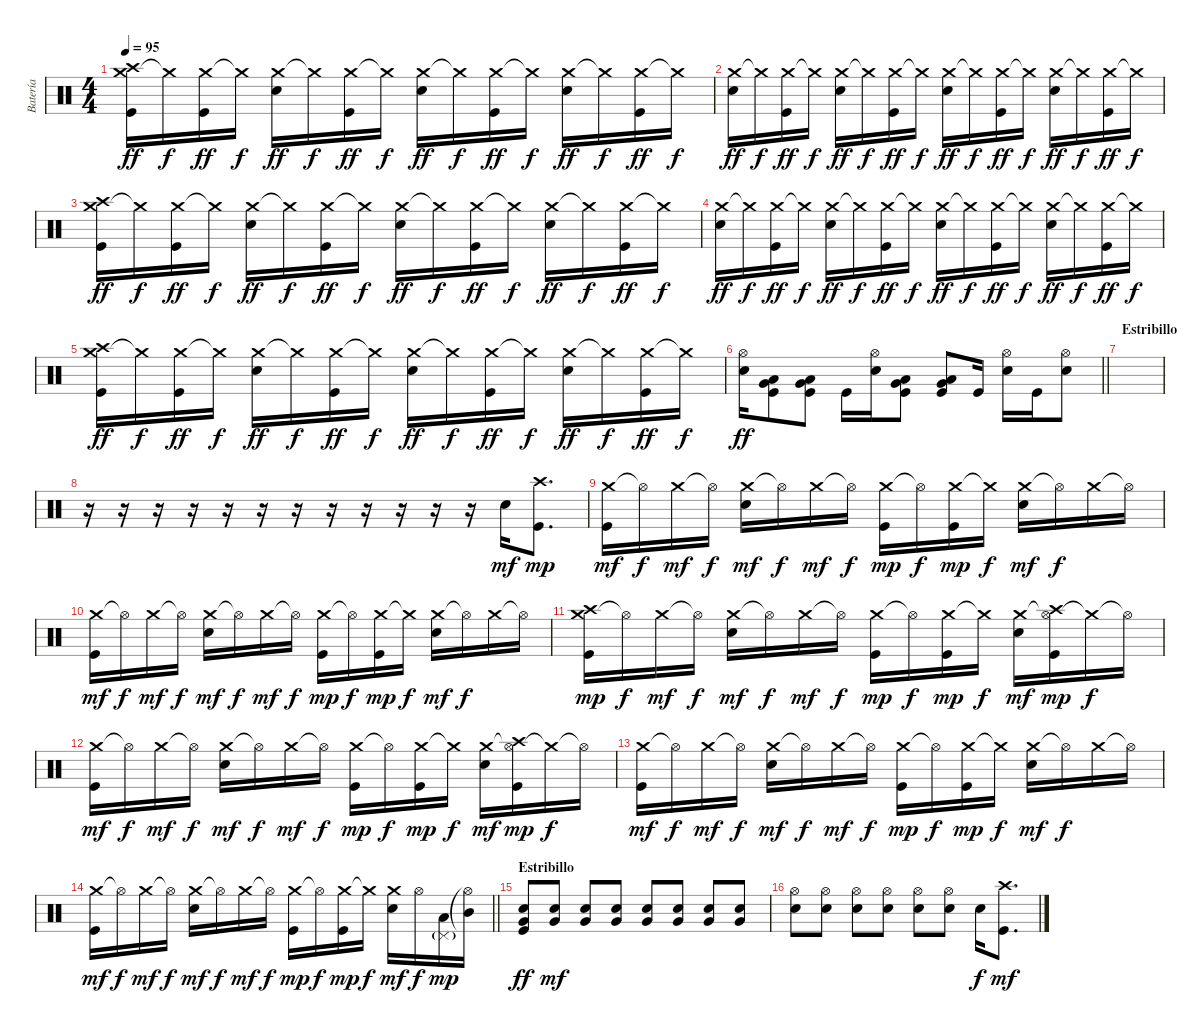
\track ("Batería" "Batería") {instrument percussion}
\staff {score}
\articulation defaults
\ts (4 4)
\tempo 95
\clef neutral
\ks c
("Crash medium (hit)" "Kick (hit)" "Crash high (hit)").16{dy ff} "Crash medium (hit)"{t}.16{dy f} ("Crash medium (hit)" "Kick (hit)").16{dy ff} "Crash medium (hit)"{t}.16{dy f} ("Crash medium (hit)" "Electric Snare (hit)").16{dy ff} "Crash medium (hit)"{t}.16{dy f} ("Crash medium (hit)" "Kick (hit)").16{dy ff} "Crash medium (hit)"{t}.16{dy f} ("Crash medium (hit)" "Electric Snare (hit)").16{dy ff} "Crash medium (hit)"{t}.16{dy f} ("Crash medium (hit)" "Kick (hit)").16{dy ff} "Crash medium (hit)"{t}.16{dy f} ("Crash medium (hit)" "Electric Snare (hit)").16{dy ff} "Crash medium (hit)"{t}.16{dy f} ("Crash medium (hit)" "Kick (hit)").16{dy ff} "Crash medium (hit)"{t}.16{dy f} |
("Crash medium (hit)" "Electric Snare (hit)").16{dy ff} "Crash medium (hit)"{t}.16{dy f} ("Crash medium (hit)" "Kick (hit)").16{dy ff} "Crash medium (hit)"{t}.16{dy f} ("Crash medium (hit)" "Electric Snare (hit)").16{dy ff} "Crash medium (hit)"{t}.16{dy f} ("Crash medium (hit)" "Kick (hit)").16{dy ff} "Crash medium (hit)"{t}.16{dy f} ("Crash medium (hit)" "Electric Snare (hit)").16{dy ff} "Crash medium (hit)"{t}.16{dy f} ("Crash medium (hit)" "Kick (hit)").16{dy ff} "Crash medium (hit)"{t}.16{dy f} ("Crash medium (hit)" "Electric Snare (hit)").16{dy ff} "Crash medium (hit)"{t}.16{dy f} ("Crash medium (hit)" "Kick (hit)").16{dy ff} "Crash medium (hit)"{t}.16{dy f} |
("Crash medium (hit)" "Kick (hit)" "Crash high (hit)").16{dy ff} "Crash medium (hit)"{t}.16{dy f} ("Crash medium (hit)" "Kick (hit)").16{dy ff} "Crash medium (hit)"{t}.16{dy f} ("Crash medium (hit)" "Electric Snare (hit)").16{dy ff} "Crash medium (hit)"{t}.16{dy f} ("Crash medium (hit)" "Kick (hit)").16{dy ff} "Crash medium (hit)"{t}.16{dy f} ("Crash medium (hit)" "Electric Snare (hit)").16{dy ff} "Crash medium (hit)"{t}.16{dy f} ("Crash medium (hit)" "Kick (hit)").16{dy ff} "Crash medium (hit)"{t}.16{dy f} ("Crash medium (hit)" "Electric Snare (hit)").16{dy ff} "Crash medium (hit)"{t}.16{dy f} ("Crash medium (hit)" "Kick (hit)").16{dy ff} "Crash medium (hit)"{t}.16{dy f} |
("Crash medium (hit)" "Electric Snare (hit)").16{dy ff} "Crash medium (hit)"{t}.16{dy f} ("Crash medium (hit)" "Kick (hit)").16{dy ff} "Crash medium (hit)"{t}.16{dy f} ("Crash medium (hit)" "Electric Snare (hit)").16{dy ff} "Crash medium (hit)"{t}.16{dy f} ("Crash medium (hit)" "Kick (hit)").16{dy ff} "Crash medium (hit)"{t}.16{dy f} ("Crash medium (hit)" "Electric Snare (hit)").16{dy ff} "Crash medium (hit)"{t}.16{dy f} ("Crash medium (hit)" "Kick (hit)").16{dy ff} "Crash medium (hit)"{t}.16{dy f} ("Crash medium (hit)" "Electric Snare (hit)").16{dy ff} "Crash medium (hit)"{t}.16{dy f} ("Crash medium (hit)" "Kick (hit)").16{dy ff} "Crash medium (hit)"{t}.16{dy f} |
("Crash medium (hit)" "Kick (hit)" "Crash high (hit)").16{dy ff} "Crash medium (hit)"{t}.16{dy f} ("Crash medium (hit)" "Kick (hit)").16{dy ff} "Crash medium (hit)"{t}.16{dy f} ("Crash medium (hit)" "Electric Snare (hit)").16{dy ff} "Crash medium (hit)"{t}.16{dy f} ("Crash medium (hit)" "Kick (hit)").16{dy ff} "Crash medium (hit)"{t}.16{dy f} ("Crash medium (hit)" "Electric Snare (hit)").16{dy ff} "Crash medium (hit)"{t}.16{dy f} ("Crash medium (hit)" "Kick (hit)").16{dy ff} "Crash medium (hit)"{t}.16{dy f} ("Crash medium (hit)" "Electric Snare (hit)").16{dy ff} "Crash medium (hit)"{t}.16{dy f} ("Crash medium (hit)" "Kick (hit)").16{dy ff} "Crash medium (hit)"{t}.16{dy f} |
\barLineRight lightlight
("Hi-Hat (open)" "Electric Snare (hit)").16{dy ff} ("Very Low Tom (hit)" "Low Tom (hit)" "Kick (hit)").8 ("Very Low Tom (hit)" "Low Tom (hit)" "Kick (hit)").8 "Kick (hit)".16 ("Hi-Hat (open)" "Electric Snare (hit)").16 ("Very Low Tom (hit)" "Low Tom (hit)" "Kick (hit)").8 ("Very Low Tom (hit)" "Low Tom (hit)" "Kick (hit)").8 "Kick (hit)".16 ("Hi-Hat (open)" "Electric Snare (hit)").16 "Kick (hit)".16 ("Hi-Hat (open)" "Electric Snare (hit)").8 |
\section ("" "Estribillo")
|
r.16 r.16 r.16 r.16 r.16 r.16 r.16 r.16 r.16 r.16 r.16 r.16 "Electric Snare (hit)".16{dy mf} ("Kick (hit)" "Crash high (hit)").8{d dy mp} |
("Crash medium (hit)" "Kick (hit)").16{dy mf} "Hi-Hat (open)"{t}.16{dy f} "Crash medium (hit)".16{dy mf} "Hi-Hat (open)"{t}.16{dy f} ("Crash medium (hit)" "Electric Snare (hit)").16{dy mf} "Hi-Hat (open)"{t}.16{dy f} "Crash medium (hit)".16{dy mf} "Hi-Hat (open)"{t}.16{dy f} ("Crash medium (hit)" "Kick (hit)").16{dy mp} "Hi-Hat (open)"{t}.16{dy f} ("Crash medium (hit)" "Kick (hit)").16{dy mp} "Crash medium (hit)"{t}.16{dy f} ("Crash medium (hit)" "Electric Snare (hit)").16{dy mf} "Hi-Hat (open)"{t}.16{dy f} "Crash medium (hit)".16 "Hi-Hat (open)"{t}.16 |
("Crash medium (hit)" "Kick (hit)").16{dy mf} "Hi-Hat (open)"{t}.16{dy f} "Crash medium (hit)".16{dy mf} "Hi-Hat (open)"{t}.16{dy f} ("Crash medium (hit)" "Electric Snare (hit)").16{dy mf} "Hi-Hat (open)"{t}.16{dy f} "Crash medium (hit)".16{dy mf} "Hi-Hat (open)"{t}.16{dy f} ("Crash medium (hit)" "Kick (hit)").16{dy mp} "Hi-Hat (open)"{t}.16{dy f} ("Crash medium (hit)" "Kick (hit)").16{dy mp} "Crash medium (hit)"{t}.16{dy f} ("Crash medium (hit)" "Electric Snare (hit)").16{dy mf} "Hi-Hat (open)"{t}.16{dy f} "Crash medium (hit)".16 "Hi-Hat (open)"{t}.16 |
("Crash medium (hit)" "Kick (hit)" "Crash high (hit)").16{dy mp} "Hi-Hat (open)"{t}.16{dy f} "Crash medium (hit)".16{dy mf} "Hi-Hat (open)"{t}.16{dy f} ("Crash medium (hit)" "Electric Snare (hit)").16{dy mf} "Hi-Hat (open)"{t}.16{dy f} "Crash medium (hit)".16{dy mf} "Hi-Hat (open)"{t}.16{dy f} ("Crash medium (hit)" "Kick (hit)").16{dy mp} "Hi-Hat (open)"{t}.16{dy f} ("Crash medium (hit)" "Kick (hit)").16{dy mp} "Crash medium (hit)"{t}.16{dy f} ("Crash medium (hit)" "Electric Snare (hit)").16{dy mf} ("Hi-Hat (open)"{t} "Kick (hit)" "Crash high (hit)").16{dy mp} "Crash medium (hit)"{t}.16{dy f} "Hi-Hat (open)"{t}.16 |
("Crash medium (hit)" "Kick (hit)").16{dy mf} "Hi-Hat (open)"{t}.16{dy f} "Crash medium (hit)".16{dy mf} "Hi-Hat (open)"{t}.16{dy f} ("Crash medium (hit)" "Electric Snare (hit)").16{dy mf} "Hi-Hat (open)"{t}.16{dy f} "Crash medium (hit)".16{dy mf} "Hi-Hat (open)"{t}.16{dy f} ("Crash medium (hit)" "Kick (hit)").16{dy mp} "Hi-Hat (open)"{t}.16{dy f} ("Crash medium (hit)" "Kick (hit)").16{dy mp} "Crash medium (hit)"{t}.16{dy f} ("Crash medium (hit)" "Electric Snare (hit)").16{dy mf} ("Hi-Hat (open)"{t} "Kick (hit)" "Crash high (hit)").16{dy mp} "Crash medium (hit)"{t}.16{dy f} "Hi-Hat (open)"{t}.16 |
("Crash medium (hit)" "Kick (hit)").16{dy mf} "Hi-Hat (open)"{t}.16{dy f} "Crash medium (hit)".16{dy mf} "Hi-Hat (open)"{t}.16{dy f} ("Crash medium (hit)" "Electric Snare (hit)").16{dy mf} "Hi-Hat (open)"{t}.16{dy f} "Crash medium (hit)".16{dy mf} "Hi-Hat (open)"{t}.16{dy f} ("Crash medium (hit)" "Kick (hit)").16{dy mp} "Hi-Hat (open)"{t}.16{dy f} ("Crash medium (hit)" "Kick (hit)").16{dy mp} "Crash medium (hit)"{t}.16{dy f} ("Crash medium (hit)" "Electric Snare (hit)").16{dy mf} "Hi-Hat (open)"{t}.16{dy f} "Crash medium (hit)".16 "Hi-Hat (open)"{t}.16 |
\barLineRight lightlight
("Crash medium (hit)" "Kick (hit)").16{dy mf} "Hi-Hat (open)"{t}.16{dy f} "Crash medium (hit)".16{dy mf} "Hi-Hat (open)"{t}.16{dy f} ("Crash medium (hit)" "Electric Snare (hit)").16{dy mf} "Hi-Hat (open)"{t}.16{dy f} "Crash medium (hit)".16{dy mf} "Hi-Hat (open)"{t}.16{dy f} ("Crash medium (hit)" "Kick (hit)").16{dy mp} "Hi-Hat (open)"{t}.16{dy f} ("Crash medium (hit)" "Kick (hit)").16{dy mp} "Crash medium (hit)"{t}.16{dy f} ("Crash medium (hit)" "Electric Snare (hit)").16{dy mf} "Hi-Hat (open)".16{dy f} ("Pedal Hi-Hat (hit)"{g} "Low Tom (hit)").16{dy mp} ("Hi-Hat (open)"{t} "Mid Tom (hit)").16 |
\section ("" "Estribillo")
("Very Low Tom (hit)" "Electric Snare (hit)" "Kick (hit)").8{dy ff} ("Very Low Tom (hit)" "Electric Snare (hit)").8{dy mf} ("Very Low Tom (hit)" "Electric Snare (hit)").8 ("Very Low Tom (hit)" "Electric Snare (hit)").8 ("Very Low Tom (hit)" "Electric Snare (hit)").8 ("Very Low Tom (hit)" "Electric Snare (hit)").8 ("Very Low Tom (hit)" "Electric Snare (hit)").8 ("Very Low Tom (hit)" "Electric Snare (hit)").8 |
("Hi-Hat (open)" "Electric Snare (hit)").8 ("Hi-Hat (open)" "Electric Snare (hit)").8 ("Hi-Hat (open)" "Electric Snare (hit)").8 ("Hi-Hat (open)" "Electric Snare (hit)").8 ("Hi-Hat (open)" "Electric Snare (hit)").8 ("Hi-Hat (open)" "Electric Snare (hit)").8 "Electric Snare (hit)".16{dy f} ("Kick (hit)" "Crash high (hit)").8{d dy mf}
